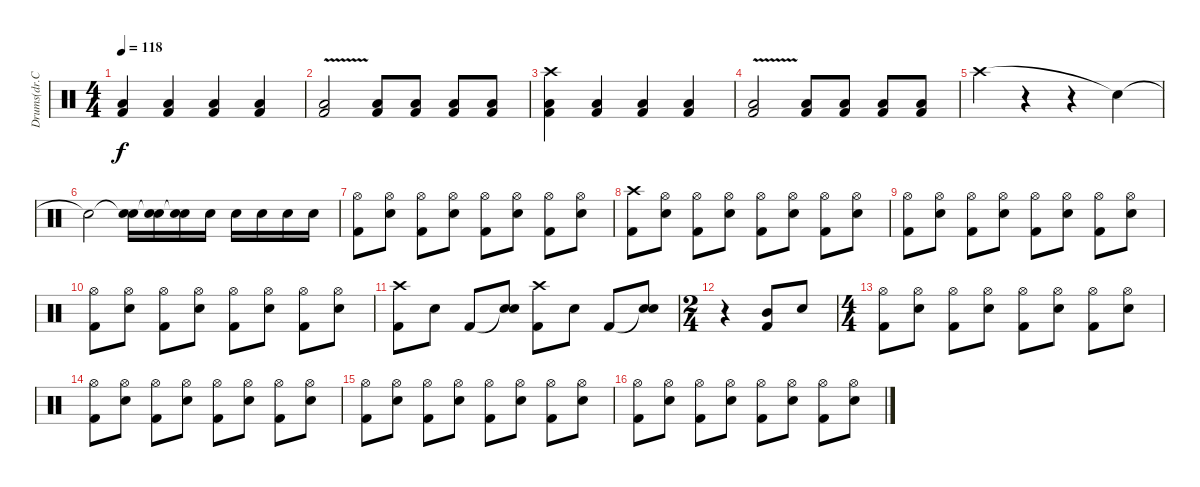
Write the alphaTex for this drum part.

\track ("Drums(dr.Chud)" "Drums(dr.C") {instrument percussion}
\staff {score}
\articulation defaults
\ts (4 4)
\tempo 118
\clef neutral
\ks c
("Low Tom (hit)" "Kick (hit) 2").4{dy f} ("Low Tom (hit)" "Kick (hit) 2").4 ("Low Tom (hit)" "Kick (hit) 2").4 ("Low Tom (hit)" "Kick (hit) 2").4 |
("Low Tom (hit)"{v} "Kick (hit) 2").2 ("Low Tom (hit)" "Kick (hit) 2").8 ("Low Tom (hit)" "Kick (hit) 2").8 ("Low Tom (hit)" "Kick (hit) 2").8 ("Low Tom (hit)" "Kick (hit) 2").8 |
("Crash high (hit)" "Low Tom (hit)" "Kick (hit) 2").4 ("Low Tom (hit)" "Kick (hit) 2").4 ("Low Tom (hit)" "Kick (hit) 2").4 ("Low Tom (hit)" "Kick (hit) 2").4 |
("Low Tom (hit)"{v} "Kick (hit) 2").2 ("Low Tom (hit)" "Kick (hit) 2").8 ("Low Tom (hit)" "Kick (hit) 2").8 ("Low Tom (hit)" "Kick (hit) 2").8 ("Low Tom (hit)" "Kick (hit) 2").8 |
"Crash high (hit)".4 r.4 r.4 "Snare (hit)"{t}.4 |
"Snare (hit)"{t}.2 ("Snare (hit)"{t} "Electric Snare (hit)").16 ("Snare (hit)"{t} "Electric Snare (hit)").16 ("Snare (hit)"{t} "Electric Snare (hit)").16 "Electric Snare (hit)".16 "Electric Snare (hit)".16 "Electric Snare (hit)".16 "Electric Snare (hit)".16 "Electric Snare (hit)".16 |
("Hi-Hat (open)" "Kick (hit) 2").8 ("Hi-Hat (open)" "Electric Snare (hit)").8 ("Hi-Hat (open)" "Kick (hit) 2").8 ("Hi-Hat (open)" "Electric Snare (hit)").8 ("Hi-Hat (open)" "Kick (hit) 2").8 ("Hi-Hat (open)" "Electric Snare (hit)").8 ("Hi-Hat (open)" "Kick (hit) 2").8 ("Hi-Hat (open)" "Electric Snare (hit)").8 |
("Crash high (hit)" "Kick (hit) 2").8 ("Hi-Hat (open)" "Electric Snare (hit)").8 ("Hi-Hat (open)" "Kick (hit) 2").8 ("Hi-Hat (open)" "Electric Snare (hit)").8 ("Hi-Hat (open)" "Kick (hit) 2").8 ("Hi-Hat (open)" "Electric Snare (hit)").8 ("Hi-Hat (open)" "Kick (hit) 2").8 ("Hi-Hat (open)" "Electric Snare (hit)").8 |
("Hi-Hat (open)" "Kick (hit) 2").8 ("Hi-Hat (open)" "Electric Snare (hit)").8 ("Hi-Hat (open)" "Kick (hit) 2").8 ("Hi-Hat (open)" "Electric Snare (hit)").8 ("Hi-Hat (open)" "Kick (hit) 2").8 ("Hi-Hat (open)" "Electric Snare (hit)").8 ("Hi-Hat (open)" "Kick (hit) 2").8 ("Hi-Hat (open)" "Electric Snare (hit)").8 |
("Hi-Hat (open)" "Kick (hit) 2").8 ("Hi-Hat (open)" "Electric Snare (hit)").8 ("Hi-Hat (open)" "Kick (hit) 2").8 ("Hi-Hat (open)" "Electric Snare (hit)").8 ("Hi-Hat (open)" "Kick (hit) 2").8 ("Hi-Hat (open)" "Electric Snare (hit)").8 ("Hi-Hat (open)" "Kick (hit) 2").8 ("Hi-Hat (open)" "Electric Snare (hit)").8 |
("Crash high (hit)" "Kick (hit) 2").8 "Electric Snare (hit)".8 "Kick (hit) 2".8 ("Snare (hit)"{t} "Electric Snare (hit)").8 ("Crash high (hit)" "Kick (hit) 2").8 "Electric Snare (hit)".8 "Kick (hit) 2".8 ("Snare (hit)"{t} "Electric Snare (hit)").8 |
\ts (2 4)
r.4 ("Kick (hit) 2" "Mid Tom (hit)").8 "Electric Snare (hit)".8 |
\ts (4 4)
("Hi-Hat (open)" "Kick (hit) 2").8 ("Hi-Hat (open)" "Electric Snare (hit)").8 ("Hi-Hat (open)" "Kick (hit) 2").8 ("Hi-Hat (open)" "Electric Snare (hit)").8 ("Hi-Hat (open)" "Kick (hit) 2").8 ("Hi-Hat (open)" "Electric Snare (hit)").8 ("Hi-Hat (open)" "Kick (hit) 2").8 ("Hi-Hat (open)" "Electric Snare (hit)").8 |
("Hi-Hat (open)" "Kick (hit) 2").8 ("Hi-Hat (open)" "Electric Snare (hit)").8 ("Hi-Hat (open)" "Kick (hit) 2").8 ("Hi-Hat (open)" "Electric Snare (hit)").8 ("Hi-Hat (open)" "Kick (hit) 2").8 ("Hi-Hat (open)" "Electric Snare (hit)").8 ("Hi-Hat (open)" "Kick (hit) 2").8 ("Hi-Hat (open)" "Electric Snare (hit)").8 |
("Hi-Hat (open)" "Kick (hit) 2").8 ("Hi-Hat (open)" "Electric Snare (hit)").8 ("Hi-Hat (open)" "Kick (hit) 2").8 ("Hi-Hat (open)" "Electric Snare (hit)").8 ("Hi-Hat (open)" "Kick (hit) 2").8 ("Hi-Hat (open)" "Electric Snare (hit)").8 ("Hi-Hat (open)" "Kick (hit) 2").8 ("Hi-Hat (open)" "Electric Snare (hit)").8 |
("Hi-Hat (open)" "Kick (hit) 2").8 ("Hi-Hat (open)" "Electric Snare (hit)").8 ("Hi-Hat (open)" "Kick (hit) 2").8 ("Hi-Hat (open)" "Electric Snare (hit)").8 ("Hi-Hat (open)" "Kick (hit) 2").8 ("Hi-Hat (open)" "Electric Snare (hit)").8 ("Hi-Hat (open)" "Kick (hit) 2").8 ("Hi-Hat (open)" "Electric Snare (hit)").8
